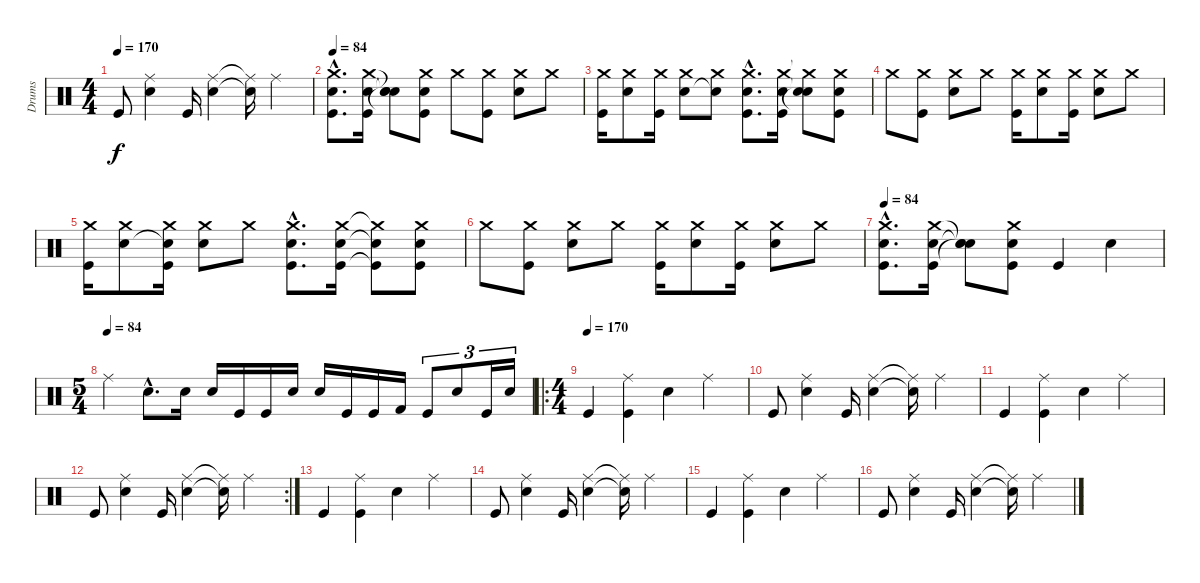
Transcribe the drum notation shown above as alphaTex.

\track ("Drums" "Drums") {instrument percussion}
\staff {score}
\articulation defaults
\ts (4 4)
\tempo 170
\clef neutral
\ks c "Kick (hit)".8{dy f}
("Ride (middle)" "Electric Snare (hit)").4 "Kick (hit)".16 ("Ride (middle)" "Electric Snare (hit)").4 ("Ride (middle)"{t} "Snare (hit)"{t}).16 "Ride (middle)".4 |
\tempo 84
("Crash medium (hit)"{hac} "Electric Snare (hit)"{hac} "Kick (hit)"{hac}).8{d} ("Crash medium (hit)" "Electric Snare (hit)" "Kick (hit)").16 ("Snare (hit)"{t} "Snare (hit)"{t} "Snare (hit)"{t}).8 ("Crash medium (hit)" "Electric Snare (hit)" "Kick (hit)").8 "Crash medium (hit)".8 ("Crash medium (hit)" "Kick (hit)").8 ("Crash medium (hit)" "Electric Snare (hit)").8 "Crash medium (hit)".8 |
("Crash medium (hit)" "Kick (hit)").16 ("Crash medium (hit)" "Electric Snare (hit)").8 ("Crash medium (hit)" "Kick (hit)").16 ("Crash medium (hit)" "Electric Snare (hit)").8 ("Crash medium (hit)" "Snare (hit)"{t}).8 ("Crash medium (hit)"{hac} "Electric Snare (hit)"{hac} "Kick (hit)"{hac}).8{d} ("Crash medium (hit)" "Electric Snare (hit)" "Kick (hit)").16 ("Crash medium (hit)"{t} "Snare (hit)"{t} "Snare (hit)"{t}).8 ("Crash medium (hit)" "Electric Snare (hit)" "Kick (hit)").8 |
"Crash medium (hit)".8 ("Crash medium (hit)" "Kick (hit)").8 ("Crash medium (hit)" "Electric Snare (hit)").8 "Crash medium (hit)".8 ("Crash medium (hit)" "Kick (hit)").16 ("Crash medium (hit)" "Electric Snare (hit)").8 ("Crash medium (hit)" "Kick (hit)").16 ("Crash medium (hit)" "Electric Snare (hit)").8 "Crash medium (hit)".8 |
("Crash medium (hit)" "Kick (hit)").16 ("Crash medium (hit)" "Electric Snare (hit)").8 ("Crash medium (hit)" "Snare (hit)"{t} "Kick (hit)").16 ("Crash medium (hit)" "Electric Snare (hit)").8 "Crash medium (hit)".8 ("Crash medium (hit)"{hac} "Electric Snare (hit)"{hac} "Kick (hit)"{hac}).8{d} ("Crash medium (hit)" "Electric Snare (hit)" "Kick (hit)").16 ("Crash medium (hit)"{t} "Snare (hit)"{t} "Kick (hit)"{t}).8 ("Crash medium (hit)" "Electric Snare (hit)" "Kick (hit)").8 |
"Crash medium (hit)".8 ("Crash medium (hit)" "Kick (hit)").8 ("Crash medium (hit)" "Electric Snare (hit)").8 "Crash medium (hit)".8 ("Crash medium (hit)" "Kick (hit)").16 ("Crash medium (hit)" "Electric Snare (hit)").8 ("Crash medium (hit)" "Kick (hit)").16 ("Crash medium (hit)" "Electric Snare (hit)").8 "Crash medium (hit)".8 |
\tempo 84
("Crash medium (hit)"{hac} "Electric Snare (hit)"{hac} "Kick (hit)"{hac}).8{d} ("Crash medium (hit)" "Electric Snare (hit)" "Kick (hit)").16 ("Snare (hit)"{t} "Snare (hit)"{t} "Snare (hit)"{t}).8 ("Crash medium (hit)" "Electric Snare (hit)" "Kick (hit)").8 "Kick (hit)".4 "Electric Snare (hit)".4 |
\ts (5 4)
\tempo (84)
"Ride (middle)".4 "Electric Snare (hit)"{hac}.8{d} "Electric Snare (hit)".16 "Electric Snare (hit)".16 "Kick (hit)".16 "Kick (hit)".16 "Electric Snare (hit)".16 "Electric Snare (hit)".16 "Kick (hit)".16 "Kick (hit)".16 "Kick (hit) 2".16 "Kick (hit)".8{tu (3 2)} "Electric Snare (hit)".8{tu (3 2)} "Kick (hit)".16{tu (3 2)} "Electric Snare (hit)".16{tu (3 2)} |
\ro
\ts (4 4)
\tempo (170)
"Kick (hit)".4 ("Ride (middle)" "Kick (hit)").4 "Electric Snare (hit)".4 "Ride (middle)".4 |
"Kick (hit)".8 ("Ride (middle)" "Electric Snare (hit)").4 "Kick (hit)".16 ("Ride (middle)" "Electric Snare (hit)").4 ("Ride (middle)"{t} "Snare (hit)"{t}).16 "Ride (middle)".4 |
"Kick (hit)".4 ("Ride (middle)" "Kick (hit)").4 "Electric Snare (hit)".4 "Ride (middle)".4 |
\rc 2 "Kick (hit)".8
("Ride (middle)" "Electric Snare (hit)").4 "Kick (hit)".16 ("Ride (middle)" "Electric Snare (hit)").4 ("Ride (middle)"{t} "Snare (hit)"{t}).16 "Ride (middle)".4 |
"Kick (hit)".4 ("Ride (middle)" "Kick (hit)").4 "Electric Snare (hit)".4 "Ride (middle)".4 |
"Kick (hit)".8 ("Ride (middle)" "Electric Snare (hit)").4 "Kick (hit)".16 ("Ride (middle)" "Electric Snare (hit)").4 ("Ride (middle)"{t} "Snare (hit)"{t}).16 "Ride (middle)".4 |
"Kick (hit)".4 ("Ride (middle)" "Kick (hit)").4 "Electric Snare (hit)".4 "Ride (middle)".4 |
"Kick (hit)".8 ("Ride (middle)" "Electric Snare (hit)").4 "Kick (hit)".16 ("Ride (middle)" "Electric Snare (hit)").4 ("Ride (middle)"{t} "Snare (hit)"{t}).16 "Ride (middle)".4
